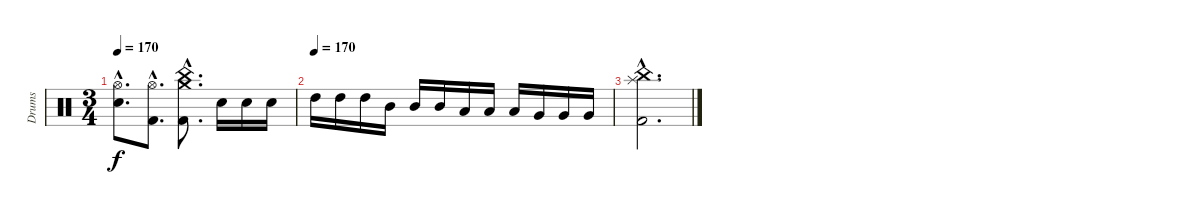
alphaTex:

\track ("Drums" "Drums") {instrument percussion}
\staff {score}
\articulation defaults
\ts (3 4)
\tempo 170
\clef neutral
\ks c
("Hi-Hat (open)"{hac} "Snare (hit) 2"{hac}).8{d dy f} ("Hi-Hat (open)"{hac} "Kick (hit) 2"{hac}).8{d} ("China (hit)"{hac} "Crash medium (hit)"{hac} "Kick (hit) 2"{hac}).8{d} "Snare (hit) 2".16 "Snare (hit) 2".16 "Snare (hit) 2".16 |
\tempo (170)
"High Tom (hit)".16 "High Tom (hit)".16 "High Tom (hit)".16 "Mid Tom (hit)".16 "Mid Tom (hit)".16 "Mid Tom (hit)".16 "Low Tom (hit)".16 "Low Tom (hit)".16 "Low Tom (hit)".16 "Very Low Tom (hit)".16 "Very Low Tom (hit)".16 "Very Low Tom (hit)".16 |
("China (hit)"{hac} "Splash (hit)"{hac} "Kick (hit) 2"{hac}).2{d}
